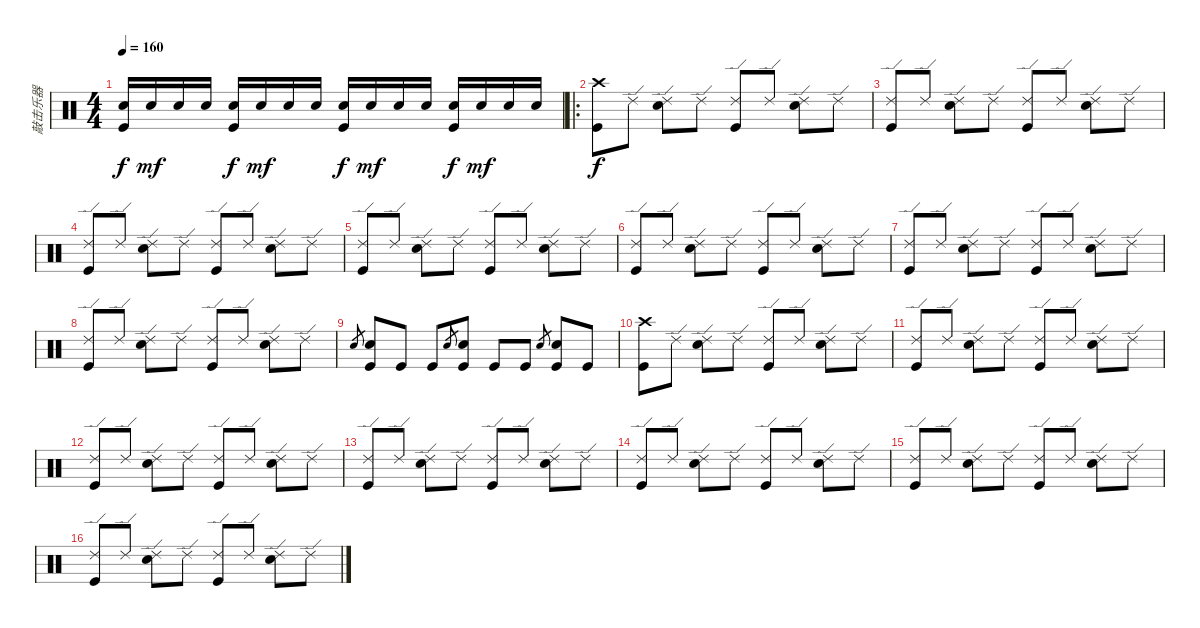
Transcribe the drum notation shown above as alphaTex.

\track ("敲击乐器" "敲击乐器") {instrument percussion}
\staff {score}
\articulation defaults
\ts (4 4)
\tempo 160
\clef neutral
\ks c
("Snare (hit) 2" "Kick (hit)").16{dy f} "Snare (hit) 2".16{dy mf} "Snare (hit) 2".16 "Snare (hit) 2".16 ("Snare (hit) 2" "Kick (hit)").16{dy f} "Snare (hit) 2".16{dy mf} "Snare (hit) 2".16 "Snare (hit) 2".16 ("Snare (hit) 2" "Kick (hit)").16{dy f} "Snare (hit) 2".16{dy mf} "Snare (hit) 2".16 "Snare (hit) 2".16 ("Snare (hit) 2" "Kick (hit)").16{dy f} "Snare (hit) 2".16{dy mf} "Snare (hit) 2".16 "Snare (hit) 2".16 |
\ro
("Crash high (hit)" "Kick (hit)").8{dy f} "Ride (edge) 2".8 ("Ride (edge) 2" "Snare (hit) 2").8 "Ride (edge) 2".8 ("Ride (edge) 2" "Kick (hit)").8 "Ride (edge) 2".8 ("Ride (edge) 2" "Snare (hit) 2").8 "Ride (edge) 2".8 |
("Ride (edge) 2" "Kick (hit)").8 "Ride (edge) 2".8 ("Ride (edge) 2" "Snare (hit) 2").8 "Ride (edge) 2".8 ("Ride (edge) 2" "Kick (hit)").8 "Ride (edge) 2".8 ("Ride (edge) 2" "Snare (hit) 2").8 "Ride (edge) 2".8 |
("Ride (edge) 2" "Kick (hit)").8 "Ride (edge) 2".8 ("Ride (edge) 2" "Snare (hit) 2").8 "Ride (edge) 2".8 ("Ride (edge) 2" "Kick (hit)").8 "Ride (edge) 2".8 ("Ride (edge) 2" "Snare (hit) 2").8 "Ride (edge) 2".8 |
("Ride (edge) 2" "Kick (hit)").8 "Ride (edge) 2".8 ("Ride (edge) 2" "Snare (hit) 2").8 "Ride (edge) 2".8 ("Ride (edge) 2" "Kick (hit)").8 "Ride (edge) 2".8 ("Ride (edge) 2" "Snare (hit) 2").8 "Ride (edge) 2".8 |
("Ride (edge) 2" "Kick (hit)").8 "Ride (edge) 2".8 ("Ride (edge) 2" "Snare (hit) 2").8 "Ride (edge) 2".8 ("Ride (edge) 2" "Kick (hit)").8 "Ride (edge) 2".8 ("Ride (edge) 2" "Snare (hit) 2").8 "Ride (edge) 2".8 |
("Ride (edge) 2" "Kick (hit)").8 "Ride (edge) 2".8 ("Ride (edge) 2" "Snare (hit) 2").8 "Ride (edge) 2".8 ("Ride (edge) 2" "Kick (hit)").8 "Ride (edge) 2".8 ("Ride (edge) 2" "Snare (hit) 2").8 "Ride (edge) 2".8 |
("Ride (edge) 2" "Kick (hit)").8 "Ride (edge) 2".8 ("Ride (edge) 2" "Snare (hit) 2").8 "Ride (edge) 2".8 ("Ride (edge) 2" "Kick (hit)").8 "Ride (edge) 2".8 ("Ride (edge) 2" "Snare (hit) 2").8 "Ride (edge) 2".8 |
"Snare (hit) 2".8{gr} ("Snare (hit) 2" "Kick (hit)").8 "Kick (hit)".8 "Kick (hit)".8 "Snare (hit) 2".8{gr} ("Snare (hit) 2" "Kick (hit)").8 "Kick (hit)".8 "Kick (hit)".8 "Snare (hit) 2".8{gr} ("Snare (hit) 2" "Kick (hit)").8 "Kick (hit)".8 |
("Crash high (hit)" "Kick (hit)").8 "Ride (edge) 2".8 ("Ride (edge) 2" "Snare (hit) 2").8 "Ride (edge) 2".8 ("Ride (edge) 2" "Kick (hit)").8 "Ride (edge) 2".8 ("Ride (edge) 2" "Snare (hit) 2").8 "Ride (edge) 2".8 |
("Ride (edge) 2" "Kick (hit)").8 "Ride (edge) 2".8 ("Ride (edge) 2" "Snare (hit) 2").8 "Ride (edge) 2".8 ("Ride (edge) 2" "Kick (hit)").8 "Ride (edge) 2".8 ("Ride (edge) 2" "Snare (hit) 2").8 "Ride (edge) 2".8 |
("Ride (edge) 2" "Kick (hit)").8 "Ride (edge) 2".8 ("Ride (edge) 2" "Snare (hit) 2").8 "Ride (edge) 2".8 ("Ride (edge) 2" "Kick (hit)").8 "Ride (edge) 2".8 ("Ride (edge) 2" "Snare (hit) 2").8 "Ride (edge) 2".8 |
("Ride (edge) 2" "Kick (hit)").8 "Ride (edge) 2".8 ("Ride (edge) 2" "Snare (hit) 2").8 "Ride (edge) 2".8 ("Ride (edge) 2" "Kick (hit)").8 "Ride (edge) 2".8 ("Ride (edge) 2" "Snare (hit) 2").8 "Ride (edge) 2".8 |
("Ride (edge) 2" "Kick (hit)").8 "Ride (edge) 2".8 ("Ride (edge) 2" "Snare (hit) 2").8 "Ride (edge) 2".8 ("Ride (edge) 2" "Kick (hit)").8 "Ride (edge) 2".8 ("Ride (edge) 2" "Snare (hit) 2").8 "Ride (edge) 2".8 |
("Ride (edge) 2" "Kick (hit)").8 "Ride (edge) 2".8 ("Ride (edge) 2" "Snare (hit) 2").8 "Ride (edge) 2".8 ("Ride (edge) 2" "Kick (hit)").8 "Ride (edge) 2".8 ("Ride (edge) 2" "Snare (hit) 2").8 "Ride (edge) 2".8 |
("Ride (edge) 2" "Kick (hit)").8 "Ride (edge) 2".8 ("Ride (edge) 2" "Snare (hit) 2").8 "Ride (edge) 2".8 ("Ride (edge) 2" "Kick (hit)").8 "Ride (edge) 2".8 ("Ride (edge) 2" "Snare (hit) 2").8 "Ride (edge) 2".8
